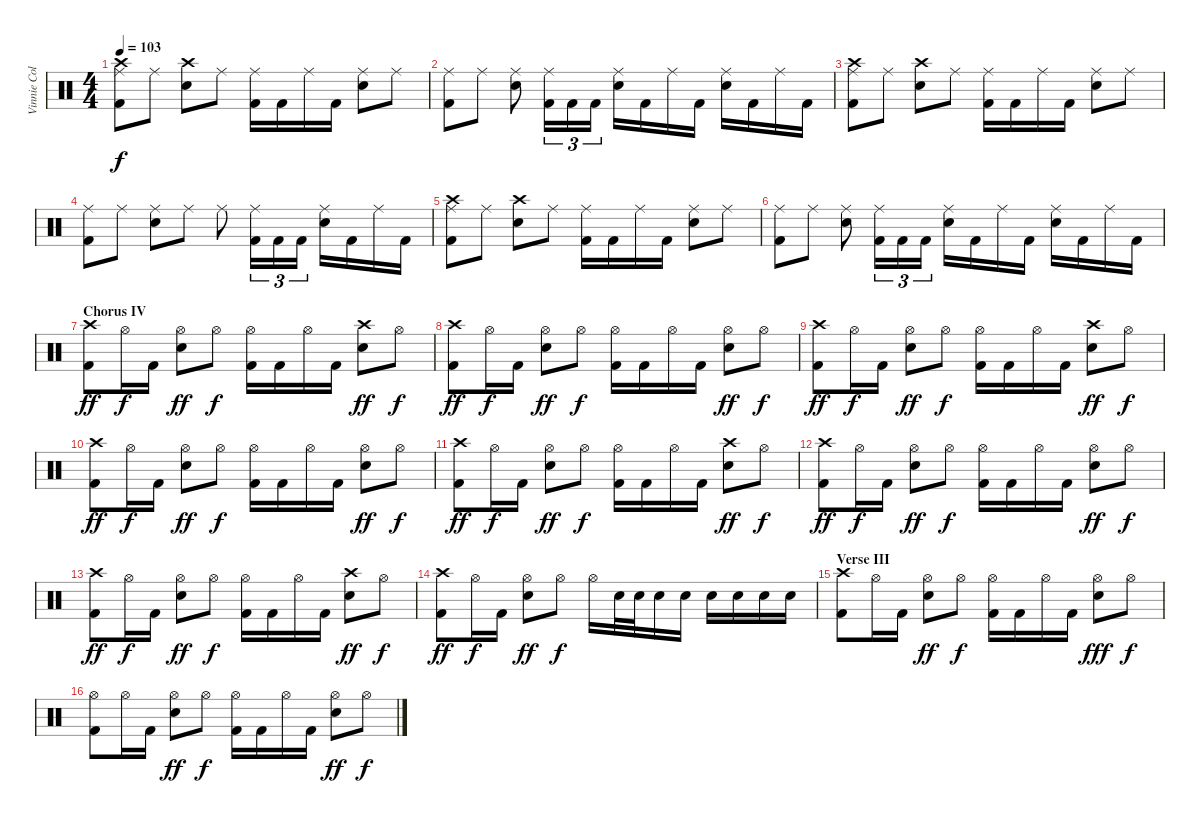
\track ("Vinnie Colaiuta" "Vinnie Col") {instrument percussion}
\staff {score}
\articulation defaults
\ts (4 4)
\tempo 103
\clef neutral
\ks c
("Crash high (hit)" "Ride (middle)" "Kick (hit) 2").8{dy f} "Ride (middle)".8 ("Crash high (hit)" "Electric Snare (hit)").8 "Ride (middle)".8 ("Ride (middle)" "Kick (hit) 2").16 "Kick (hit) 2".16 "Ride (middle)".16 "Kick (hit) 2".16 ("Ride (middle)" "Electric Snare (hit)").8 "Ride (middle)".8 |
("Ride (middle)" "Kick (hit) 2").8 "Ride (middle)".8 ("Ride (middle)" "Electric Snare (hit)").8 ("Ride (middle)" "Kick (hit) 2").16{tu (3 2)} "Kick (hit) 2".16{tu (3 2)} "Kick (hit) 2".16{tu (3 2)} ("Ride (middle)" "Electric Snare (hit)").16 "Kick (hit) 2".16 "Ride (middle)".16 "Kick (hit) 2".16 ("Ride (middle)" "Electric Snare (hit)").16 "Kick (hit) 2".16 "Ride (middle)".16 "Kick (hit) 2".16 |
("Crash high (hit)" "Ride (middle)" "Kick (hit) 2").8 "Ride (middle)".8 ("Crash high (hit)" "Electric Snare (hit)").8 "Ride (middle)".8 ("Ride (middle)" "Kick (hit) 2").16 "Kick (hit) 2".16 "Ride (middle)".16 "Kick (hit) 2".16 ("Ride (middle)" "Electric Snare (hit)").8 "Ride (middle)".8 |
("Ride (middle)" "Kick (hit) 2").8 "Ride (middle)".8 ("Ride (middle)" "Electric Snare (hit)").8 "Ride (middle)".8 "Ride (middle)".8 ("Ride (middle)" "Kick (hit) 2").16{tu (3 2)} "Kick (hit) 2".16{tu (3 2)} "Kick (hit) 2".16{tu (3 2)} ("Ride (middle)" "Electric Snare (hit)").16 "Kick (hit) 2".16 "Ride (middle)".16 "Kick (hit) 2".16 |
("Crash high (hit)" "Ride (middle)" "Kick (hit) 2").8 "Ride (middle)".8 ("Crash high (hit)" "Electric Snare (hit)").8 "Ride (middle)".8 ("Ride (middle)" "Kick (hit) 2").16 "Kick (hit) 2".16 "Ride (middle)".16 "Kick (hit) 2".16 ("Ride (middle)" "Electric Snare (hit)").8 "Ride (middle)".8 |
("Ride (middle)" "Kick (hit) 2").8 "Ride (middle)".8 ("Ride (middle)" "Electric Snare (hit)").8 ("Ride (middle)" "Kick (hit) 2").16{tu (3 2)} "Kick (hit) 2".16{tu (3 2)} "Kick (hit) 2".16{tu (3 2)} ("Ride (middle)" "Electric Snare (hit)").16 "Kick (hit) 2".16 "Ride (middle)".16 "Kick (hit) 2".16 ("Ride (middle)" "Electric Snare (hit)").16 "Kick (hit) 2".16 "Ride (middle)".16 "Kick (hit) 2".16 |
\section ("" "Chorus IV")
("Crash high (hit)" "Kick (hit) 2").8{dy ff} "Hi-Hat (open)".16{dy f} "Kick (hit) 2".16 ("Hi-Hat (open)" "Electric Snare (hit)").8{dy ff} "Hi-Hat (open)".8{dy f} ("Hi-Hat (open)" "Kick (hit) 2").16 "Kick (hit) 2".16 "Hi-Hat (open)".16 "Kick (hit) 2".16 ("Crash high (hit)" "Electric Snare (hit)").8{dy ff} "Hi-Hat (open)".8{dy f} |
("Crash high (hit)" "Kick (hit) 2").8{dy ff} "Hi-Hat (open)".16{dy f} "Kick (hit) 2".16 ("Hi-Hat (open)" "Electric Snare (hit)").8{dy ff} "Hi-Hat (open)".8{dy f} ("Hi-Hat (open)" "Kick (hit) 2").16 "Kick (hit) 2".16 "Hi-Hat (open)".16 "Kick (hit) 2".16 ("Hi-Hat (open)" "Electric Snare (hit)").8{dy ff} "Hi-Hat (open)".8{dy f} |
("Crash high (hit)" "Kick (hit) 2").8{dy ff} "Hi-Hat (open)".16{dy f} "Kick (hit) 2".16 ("Hi-Hat (open)" "Electric Snare (hit)").8{dy ff} "Hi-Hat (open)".8{dy f} ("Hi-Hat (open)" "Kick (hit) 2").16 "Kick (hit) 2".16 "Hi-Hat (open)".16 "Kick (hit) 2".16 ("Crash high (hit)" "Electric Snare (hit)").8{dy ff} "Hi-Hat (open)".8{dy f} |
("Crash high (hit)" "Kick (hit) 2").8{dy ff} "Hi-Hat (open)".16{dy f} "Kick (hit) 2".16 ("Hi-Hat (open)" "Electric Snare (hit)").8{dy ff} "Hi-Hat (open)".8{dy f} ("Hi-Hat (open)" "Kick (hit) 2").16 "Kick (hit) 2".16 "Hi-Hat (open)".16 "Kick (hit) 2".16 ("Hi-Hat (open)" "Electric Snare (hit)").8{dy ff} "Hi-Hat (open)".8{dy f} |
("Crash high (hit)" "Kick (hit) 2").8{dy ff} "Hi-Hat (open)".16{dy f} "Kick (hit) 2".16 ("Hi-Hat (open)" "Electric Snare (hit)").8{dy ff} "Hi-Hat (open)".8{dy f} ("Hi-Hat (open)" "Kick (hit) 2").16 "Kick (hit) 2".16 "Hi-Hat (open)".16 "Kick (hit) 2".16 ("Crash high (hit)" "Electric Snare (hit)").8{dy ff} "Hi-Hat (open)".8{dy f} |
("Crash high (hit)" "Kick (hit) 2").8{dy ff} "Hi-Hat (open)".16{dy f} "Kick (hit) 2".16 ("Hi-Hat (open)" "Electric Snare (hit)").8{dy ff} "Hi-Hat (open)".8{dy f} ("Hi-Hat (open)" "Kick (hit) 2").16 "Kick (hit) 2".16 "Hi-Hat (open)".16 "Kick (hit) 2".16 ("Hi-Hat (open)" "Electric Snare (hit)").8{dy ff} "Hi-Hat (open)".8{dy f} |
("Crash high (hit)" "Kick (hit) 2").8{dy ff} "Hi-Hat (open)".16{dy f} "Kick (hit) 2".16 ("Hi-Hat (open)" "Electric Snare (hit)").8{dy ff} "Hi-Hat (open)".8{dy f} ("Hi-Hat (open)" "Kick (hit) 2").16 "Kick (hit) 2".16 "Hi-Hat (open)".16 "Kick (hit) 2".16 ("Crash high (hit)" "Electric Snare (hit)").8{dy ff} "Hi-Hat (open)".8{dy f} |
("Crash high (hit)" "Kick (hit) 2").8{dy ff} "Hi-Hat (open)".16{dy f} "Kick (hit) 2".16 ("Hi-Hat (open)" "Electric Snare (hit)").8{dy ff} "Hi-Hat (open)".8{dy f} "Hi-Hat (open)".16 "Electric Snare (hit)".32 "Electric Snare (hit)".32 "Electric Snare (hit)".16 "Electric Snare (hit)".16 "Electric Snare (hit)".16 "Electric Snare (hit)".16 "Electric Snare (hit)".16 "Electric Snare (hit)".16 |
\section ("" "Verse III")
("Crash high (hit)" "Kick (hit) 2").8 "Hi-Hat (open)".16 "Kick (hit) 2".16 ("Hi-Hat (open)" "Electric Snare (hit)").8{dy ff} "Hi-Hat (open)".8{dy f} ("Hi-Hat (open)" "Kick (hit) 2").16 "Kick (hit) 2".16 "Hi-Hat (open)".16 "Kick (hit) 2".16 ("Hi-Hat (open)" "Electric Snare (hit)").8{dy fff} "Hi-Hat (open)".8{dy f} |
("Hi-Hat (open)" "Kick (hit) 2").8 "Hi-Hat (open)".16 "Kick (hit) 2".16 ("Hi-Hat (open)" "Electric Snare (hit)").8{dy ff} "Hi-Hat (open)".8{dy f} ("Hi-Hat (open)" "Kick (hit) 2").16 "Kick (hit) 2".16 "Hi-Hat (open)".16 "Kick (hit) 2".16 ("Hi-Hat (open)" "Electric Snare (hit)").8{dy ff} "Hi-Hat (open)".8{dy f}
